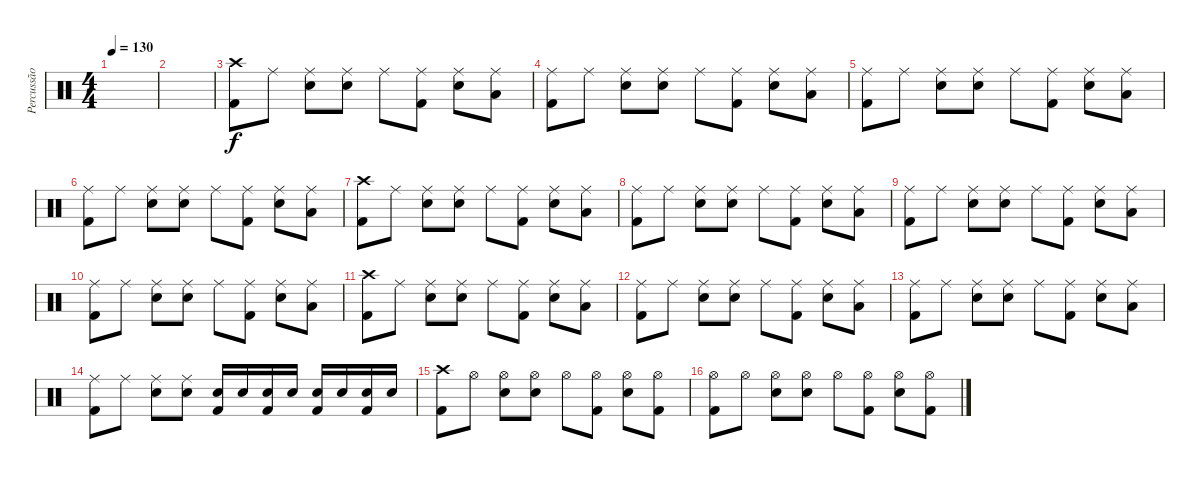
\track ("Percussão" "Percussão") {instrument percussion}
\staff {score}
\articulation defaults
\ts (4 4)
\tempo 130
\clef neutral
\ks c
|
|
("Crash high (hit)" "Kick (hit) 2").8 "Ride (middle)".8 ("Ride (middle)" "Electric Snare (hit)").8 ("Ride (middle)" "Electric Snare (hit)").8 "Ride (middle)".8 ("Ride (middle)" "Kick (hit) 2").8 ("Ride (middle)" "Electric Snare (hit)").8 ("Ride (middle)" "Low Tom (hit)").8 |
("Ride (middle)" "Kick (hit) 2").8 "Ride (middle)".8 ("Ride (middle)" "Electric Snare (hit)").8 ("Ride (middle)" "Electric Snare (hit)").8 "Ride (middle)".8 ("Ride (middle)" "Kick (hit) 2").8 ("Ride (middle)" "Electric Snare (hit)").8 ("Ride (middle)" "Low Tom (hit)").8 |
("Ride (middle)" "Kick (hit) 2").8 "Ride (middle)".8 ("Ride (middle)" "Electric Snare (hit)").8 ("Ride (middle)" "Electric Snare (hit)").8 "Ride (middle)".8 ("Ride (middle)" "Kick (hit) 2").8 ("Ride (middle)" "Electric Snare (hit)").8 ("Ride (middle)" "Low Tom (hit)").8 |
("Ride (middle)" "Kick (hit) 2").8 "Ride (middle)".8 ("Ride (middle)" "Electric Snare (hit)").8 ("Ride (middle)" "Electric Snare (hit)").8 "Ride (middle)".8 ("Ride (middle)" "Kick (hit) 2").8 ("Ride (middle)" "Electric Snare (hit)").8 ("Ride (middle)" "Low Tom (hit)").8 |
("Crash high (hit)" "Kick (hit) 2").8 "Ride (middle)".8 ("Ride (middle)" "Electric Snare (hit)").8 ("Ride (middle)" "Electric Snare (hit)").8 "Ride (middle)".8 ("Ride (middle)" "Kick (hit) 2").8 ("Ride (middle)" "Electric Snare (hit)").8 ("Ride (middle)" "Low Tom (hit)").8 |
("Ride (middle)" "Kick (hit) 2").8 "Ride (middle)".8 ("Ride (middle)" "Electric Snare (hit)").8 ("Ride (middle)" "Electric Snare (hit)").8 "Ride (middle)".8 ("Ride (middle)" "Kick (hit) 2").8 ("Ride (middle)" "Electric Snare (hit)").8 ("Ride (middle)" "Low Tom (hit)").8 |
("Ride (middle)" "Kick (hit) 2").8 "Ride (middle)".8 ("Ride (middle)" "Electric Snare (hit)").8 ("Ride (middle)" "Electric Snare (hit)").8 "Ride (middle)".8 ("Ride (middle)" "Kick (hit) 2").8 ("Ride (middle)" "Electric Snare (hit)").8 ("Ride (middle)" "Low Tom (hit)").8 |
("Ride (middle)" "Kick (hit) 2").8 "Ride (middle)".8 ("Ride (middle)" "Electric Snare (hit)").8 ("Ride (middle)" "Electric Snare (hit)").8 "Ride (middle)".8 ("Ride (middle)" "Kick (hit) 2").8 ("Ride (middle)" "Electric Snare (hit)").8 ("Ride (middle)" "Low Tom (hit)").8 |
("Crash high (hit)" "Kick (hit) 2").8 "Ride (middle)".8 ("Ride (middle)" "Electric Snare (hit)").8 ("Ride (middle)" "Electric Snare (hit)").8 "Ride (middle)".8 ("Ride (middle)" "Kick (hit) 2").8 ("Ride (middle)" "Electric Snare (hit)").8 ("Ride (middle)" "Low Tom (hit)").8 |
("Ride (middle)" "Kick (hit) 2").8 "Ride (middle)".8 ("Ride (middle)" "Electric Snare (hit)").8 ("Ride (middle)" "Electric Snare (hit)").8 "Ride (middle)".8 ("Ride (middle)" "Kick (hit) 2").8 ("Ride (middle)" "Electric Snare (hit)").8 ("Ride (middle)" "Low Tom (hit)").8 |
("Ride (middle)" "Kick (hit) 2").8 "Ride (middle)".8 ("Ride (middle)" "Electric Snare (hit)").8 ("Ride (middle)" "Electric Snare (hit)").8 "Ride (middle)".8 ("Ride (middle)" "Kick (hit) 2").8 ("Ride (middle)" "Electric Snare (hit)").8 ("Ride (middle)" "Low Tom (hit)").8 |
("Ride (middle)" "Kick (hit) 2").8 "Ride (middle)".8 ("Ride (middle)" "Electric Snare (hit)").8 ("Ride (middle)" "Electric Snare (hit)").8 ("Electric Snare (hit)" "Kick (hit) 2").16 "Electric Snare (hit)".16 ("Electric Snare (hit)" "Kick (hit) 2").16 "Electric Snare (hit)".16 ("Electric Snare (hit)" "Kick (hit) 2").16 "Electric Snare (hit)".16 ("Electric Snare (hit)" "Kick (hit) 2").16 "Electric Snare (hit)".16 |
("Crash high (hit)" "Kick (hit) 2").8 "Hi-Hat (open)".8 ("Hi-Hat (open)" "Electric Snare (hit)").8 ("Hi-Hat (open)" "Electric Snare (hit)").8 "Hi-Hat (open)".8 ("Hi-Hat (open)" "Kick (hit) 2").8 ("Hi-Hat (open)" "Electric Snare (hit)").8 ("Hi-Hat (open)" "Kick (hit) 2").8 |
("Hi-Hat (open)" "Kick (hit) 2").8 "Hi-Hat (open)".8 ("Hi-Hat (open)" "Electric Snare (hit)").8 ("Hi-Hat (open)" "Electric Snare (hit)").8 "Hi-Hat (open)".8 ("Hi-Hat (open)" "Kick (hit) 2").8 ("Hi-Hat (open)" "Electric Snare (hit)").8 ("Hi-Hat (open)" "Kick (hit) 2").8
